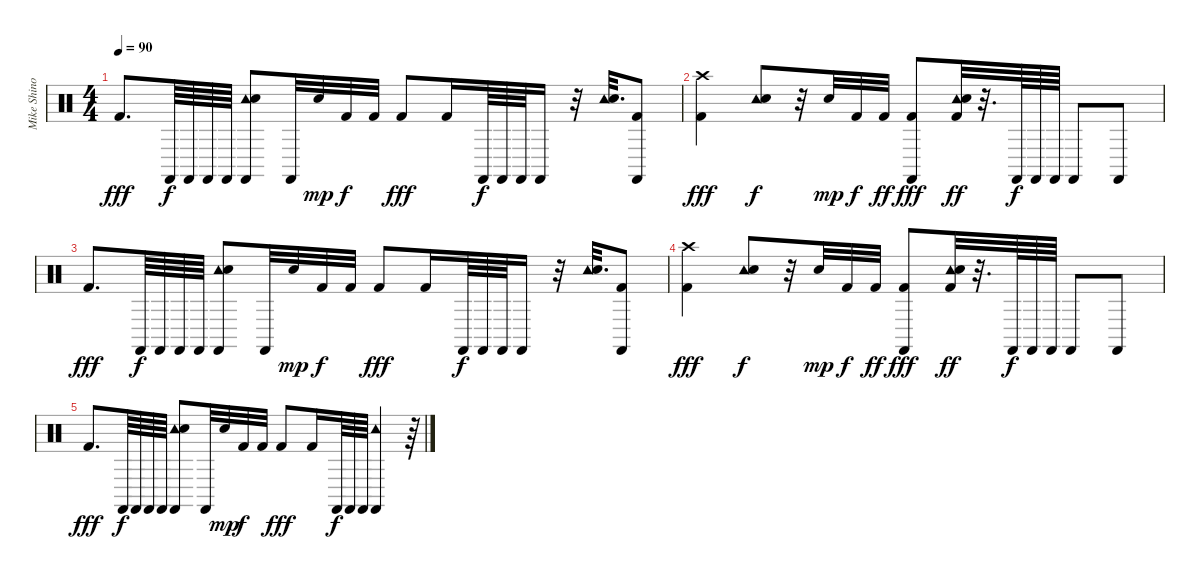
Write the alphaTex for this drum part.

\track ("Mike Shinoda - Percussion" "Mike Shino") {instrument percussion}
\staff {score}
\articulation defaults
\ts (4 4)
\tempo 90
\clef neutral
\ks c "Kick (hit) 2".8{d dy fff} "Castanets (hit)".64{dy f} "Castanets (hit)".64 "Castanets (hit)".64 "Castanets (hit)".64
("Castanets (hit)" "Tambourine (hit)" "Electric Snare (hit)").8 "Castanets (hit)".32 "Snare (hit) 2".32{dy mp} "Kick (hit) 2".32{dy f} "Kick (hit) 2".32 "Kick (hit) 2".8{dy fff} "Kick (hit) 2".16 "Castanets (hit)".64{dy f} "Castanets (hit)".64 "Castanets (hit)".64 "Castanets (hit)".16 r.32 ("Tambourine (hit)" "Electric Snare (hit)").32{d} ("Castanets (hit)" "Kick (hit) 2").8 |
("Crash high (hit)" "Kick (hit) 2").4{dy fff} ("Tambourine (hit)" "Electric Snare (hit)").8{dy f} r.32 "Snare (hit) 2".32{dy mp} "Kick (hit) 2".32{dy f} "Kick (hit) 2".32{dy ff} ("Castanets (hit)" "Kick (hit) 2").8{dy fff} ("Tambourine (hit)" "Electric Snare (hit)" "Kick (hit) 2").32{dy ff} r.32{d} "Castanets (hit)".64{dy f} "Castanets (hit)".64 "Castanets (hit)".64 "Castanets (hit)".8 "Castanets (hit)".8 |
"Kick (hit) 2".8{d dy fff} "Castanets (hit)".64{dy f} "Castanets (hit)".64 "Castanets (hit)".64 "Castanets (hit)".64 ("Castanets (hit)" "Tambourine (hit)" "Electric Snare (hit)").8 "Castanets (hit)".32 "Snare (hit) 2".32{dy mp} "Kick (hit) 2".32{dy f} "Kick (hit) 2".32 "Kick (hit) 2".8{dy fff} "Kick (hit) 2".16 "Castanets (hit)".64{dy f} "Castanets (hit)".64 "Castanets (hit)".64 "Castanets (hit)".16 r.32 ("Tambourine (hit)" "Electric Snare (hit)").32{d} ("Castanets (hit)" "Kick (hit) 2").8 |
("Crash high (hit)" "Kick (hit) 2").4{dy fff} ("Tambourine (hit)" "Electric Snare (hit)").8{dy f} r.32 "Snare (hit) 2".32{dy mp} "Kick (hit) 2".32{dy f} "Kick (hit) 2".32{dy ff} ("Castanets (hit)" "Kick (hit) 2").8{dy fff} ("Tambourine (hit)" "Electric Snare (hit)" "Kick (hit) 2").32{dy ff} r.32{d} "Castanets (hit)".64{dy f} "Castanets (hit)".64 "Castanets (hit)".64 "Castanets (hit)".8 "Castanets (hit)".8 |
"Kick (hit) 2".8{d dy fff} "Castanets (hit)".64{dy f} "Castanets (hit)".64 "Castanets (hit)".64 "Castanets (hit)".64 ("Castanets (hit)" "Tambourine (hit)" "Electric Snare (hit)").8 "Castanets (hit)".32 "Snare (hit) 2".32{dy mp} "Kick (hit) 2".32{dy f} "Kick (hit) 2".32 "Kick (hit) 2".8{dy fff} "Kick (hit) 2".16 "Castanets (hit)".64{dy f} "Castanets (hit)".64 "Castanets (hit)".64 ("Castanets (hit)" "Tambourine (hit)").4 r.64
